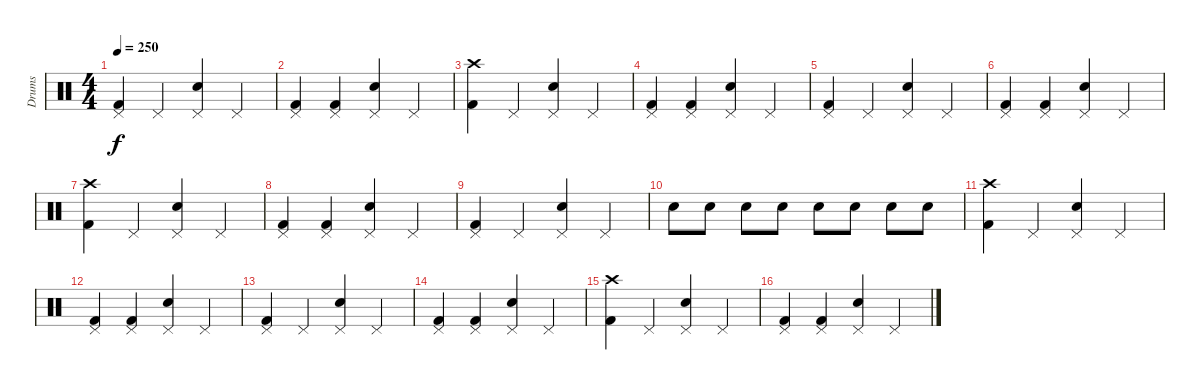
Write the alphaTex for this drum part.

\track ("Drums" "Drums") {instrument percussion}
\staff {score}
\articulation defaults
\ts (4 4)
\tempo 250
\clef neutral
\ks c
("Pedal Hi-Hat (hit)" "Kick (hit) 2").4{dy f} "Pedal Hi-Hat (hit)".4 ("Pedal Hi-Hat (hit)" "Electric Snare (hit)").4 "Pedal Hi-Hat (hit)".4 |
("Pedal Hi-Hat (hit)" "Kick (hit) 2").4 ("Pedal Hi-Hat (hit)" "Kick (hit) 2").4 ("Pedal Hi-Hat (hit)" "Electric Snare (hit)").4 "Pedal Hi-Hat (hit)".4 |
("Kick (hit) 2" "Crash high (hit)").4 "Pedal Hi-Hat (hit)".4 ("Pedal Hi-Hat (hit)" "Electric Snare (hit)").4 "Pedal Hi-Hat (hit)".4 |
("Pedal Hi-Hat (hit)" "Kick (hit) 2").4 ("Pedal Hi-Hat (hit)" "Kick (hit) 2").4 ("Pedal Hi-Hat (hit)" "Electric Snare (hit)").4 "Pedal Hi-Hat (hit)".4 |
("Pedal Hi-Hat (hit)" "Kick (hit) 2").4 "Pedal Hi-Hat (hit)".4 ("Pedal Hi-Hat (hit)" "Electric Snare (hit)").4 "Pedal Hi-Hat (hit)".4 |
("Pedal Hi-Hat (hit)" "Kick (hit) 2").4 ("Pedal Hi-Hat (hit)" "Kick (hit) 2").4 ("Pedal Hi-Hat (hit)" "Electric Snare (hit)").4 "Pedal Hi-Hat (hit)".4 |
("Kick (hit) 2" "Crash high (hit)").4 "Pedal Hi-Hat (hit)".4 ("Pedal Hi-Hat (hit)" "Electric Snare (hit)").4 "Pedal Hi-Hat (hit)".4 |
("Pedal Hi-Hat (hit)" "Kick (hit) 2").4 ("Pedal Hi-Hat (hit)" "Kick (hit) 2").4 ("Pedal Hi-Hat (hit)" "Electric Snare (hit)").4 "Pedal Hi-Hat (hit)".4 |
("Pedal Hi-Hat (hit)" "Kick (hit) 2").4 "Pedal Hi-Hat (hit)".4 ("Pedal Hi-Hat (hit)" "Electric Snare (hit)").4 "Pedal Hi-Hat (hit)".4 |
"Electric Snare (hit)".8 "Electric Snare (hit)".8 "Electric Snare (hit)".8 "Electric Snare (hit)".8 "Electric Snare (hit)".8 "Electric Snare (hit)".8 "Electric Snare (hit)".8 "Electric Snare (hit)".8 |
("Kick (hit) 2" "Crash high (hit)").4 "Pedal Hi-Hat (hit)".4 ("Pedal Hi-Hat (hit)" "Electric Snare (hit)").4 "Pedal Hi-Hat (hit)".4 |
("Pedal Hi-Hat (hit)" "Kick (hit) 2").4 ("Pedal Hi-Hat (hit)" "Kick (hit) 2").4 ("Pedal Hi-Hat (hit)" "Electric Snare (hit)").4 "Pedal Hi-Hat (hit)".4 |
("Pedal Hi-Hat (hit)" "Kick (hit) 2").4 "Pedal Hi-Hat (hit)".4 ("Pedal Hi-Hat (hit)" "Electric Snare (hit)").4 "Pedal Hi-Hat (hit)".4 |
("Pedal Hi-Hat (hit)" "Kick (hit) 2").4 ("Pedal Hi-Hat (hit)" "Kick (hit) 2").4 ("Pedal Hi-Hat (hit)" "Electric Snare (hit)").4 "Pedal Hi-Hat (hit)".4 |
("Kick (hit) 2" "Crash high (hit)").4 "Pedal Hi-Hat (hit)".4 ("Pedal Hi-Hat (hit)" "Electric Snare (hit)").4 "Pedal Hi-Hat (hit)".4 |
("Pedal Hi-Hat (hit)" "Kick (hit) 2").4 ("Pedal Hi-Hat (hit)" "Kick (hit) 2").4 ("Pedal Hi-Hat (hit)" "Electric Snare (hit)").4 "Pedal Hi-Hat (hit)".4
